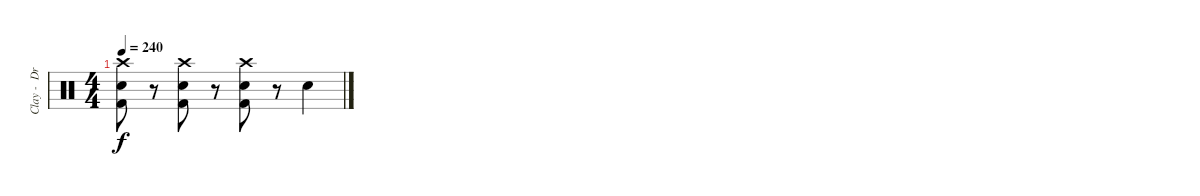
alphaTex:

\track ("Clay -  Drums" "Clay -  Dr") {instrument percussion}
\staff {score}
\articulation defaults
\ts (4 4)
\tempo 240
\clef neutral
\ks c
("Crash high (hit)" "Electric Snare (hit)" "Kick (hit) 2").8{dy f} r.8 ("Crash high (hit)" "Electric Snare (hit)" "Kick (hit) 2").8 r.8 ("Crash high (hit)" "Electric Snare (hit)" "Kick (hit) 2").8 r.8 "Electric Snare (hit)".4
